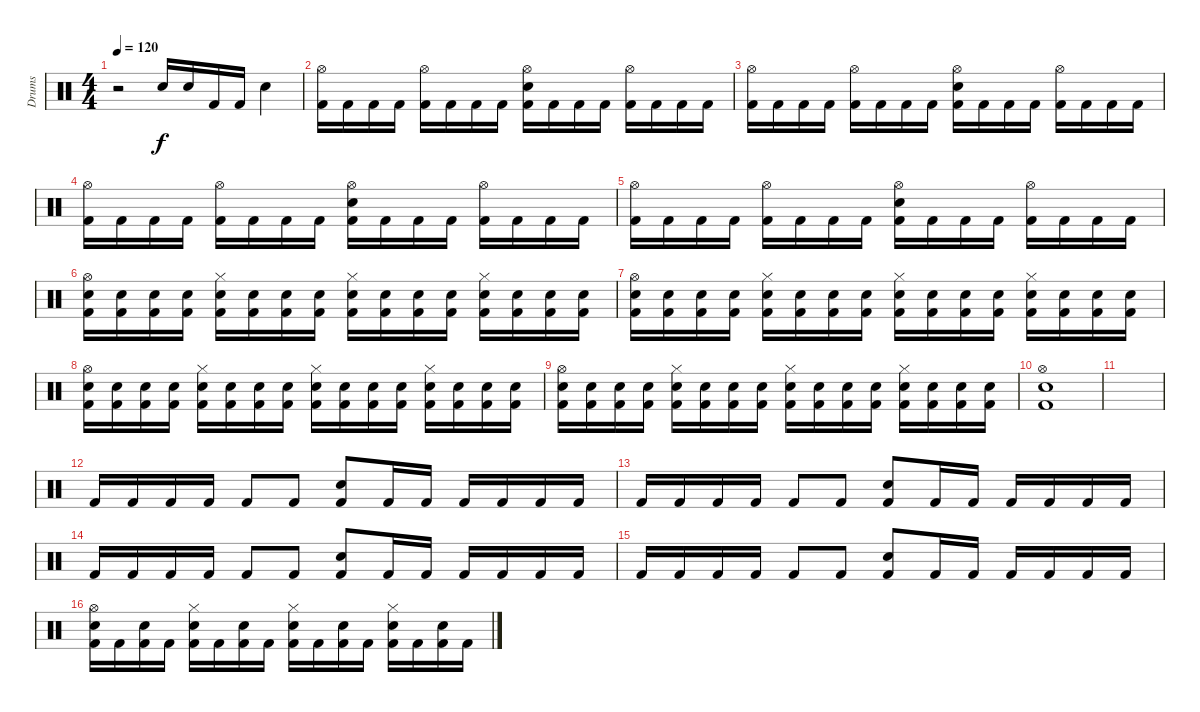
\track ("Drums" "Drums") {instrument percussion}
\staff {score}
\articulation defaults
\ts (4 4)
\tempo 120
\clef neutral
\ks c
r.2{dy f} "Snare (hit) 2".16 "Snare (hit) 2".16 "Kick (hit) 2".16 "Kick (hit) 2".16 "Snare (hit) 2".4 |
("Hi-Hat (open)" "Kick (hit) 2").16 "Kick (hit) 2".16 "Kick (hit) 2".16 "Kick (hit) 2".16 ("Hi-Hat (open)" "Kick (hit) 2").16 "Kick (hit) 2".16 "Kick (hit) 2".16 "Kick (hit) 2".16 ("Hi-Hat (open)" "Snare (hit) 2" "Kick (hit) 2").16 "Kick (hit) 2".16 "Kick (hit) 2".16 "Kick (hit) 2".16 ("Hi-Hat (open)" "Kick (hit) 2").16 "Kick (hit) 2".16 "Kick (hit) 2".16 "Kick (hit) 2".16 |
("Hi-Hat (open)" "Kick (hit) 2").16 "Kick (hit) 2".16 "Kick (hit) 2".16 "Kick (hit) 2".16 ("Hi-Hat (open)" "Kick (hit) 2").16 "Kick (hit) 2".16 "Kick (hit) 2".16 "Kick (hit) 2".16 ("Hi-Hat (open)" "Snare (hit) 2" "Kick (hit) 2").16 "Kick (hit) 2".16 "Kick (hit) 2".16 "Kick (hit) 2".16 ("Hi-Hat (open)" "Kick (hit) 2").16 "Kick (hit) 2".16 "Kick (hit) 2".16 "Kick (hit) 2".16 |
("Hi-Hat (open)" "Kick (hit) 2").16 "Kick (hit) 2".16 "Kick (hit) 2".16 "Kick (hit) 2".16 ("Hi-Hat (open)" "Kick (hit) 2").16 "Kick (hit) 2".16 "Kick (hit) 2".16 "Kick (hit) 2".16 ("Hi-Hat (open)" "Snare (hit) 2" "Kick (hit) 2").16 "Kick (hit) 2".16 "Kick (hit) 2".16 "Kick (hit) 2".16 ("Hi-Hat (open)" "Kick (hit) 2").16 "Kick (hit) 2".16 "Kick (hit) 2".16 "Kick (hit) 2".16 |
("Hi-Hat (open)" "Kick (hit) 2").16 "Kick (hit) 2".16 "Kick (hit) 2".16 "Kick (hit) 2".16 ("Hi-Hat (open)" "Kick (hit) 2").16 "Kick (hit) 2".16 "Kick (hit) 2".16 "Kick (hit) 2".16 ("Hi-Hat (open)" "Snare (hit) 2" "Kick (hit) 2").16 "Kick (hit) 2".16 "Kick (hit) 2".16 "Kick (hit) 2".16 ("Hi-Hat (open)" "Kick (hit) 2").16 "Kick (hit) 2".16 "Kick (hit) 2".16 "Kick (hit) 2".16 |
("Hi-Hat (open)" "Snare (hit) 2" "Kick (hit) 2").16 ("Snare (hit) 2" "Kick (hit) 2").16 ("Snare (hit) 2" "Kick (hit) 2").16 ("Snare (hit) 2" "Kick (hit) 2").16 ("Hi-Hat (closed)" "Snare (hit) 2" "Kick (hit) 2").16 ("Snare (hit) 2" "Kick (hit) 2").16 ("Snare (hit) 2" "Kick (hit) 2").16 ("Snare (hit) 2" "Kick (hit) 2").16 ("Hi-Hat (closed)" "Snare (hit) 2" "Kick (hit) 2").16 ("Snare (hit) 2" "Kick (hit) 2").16 ("Snare (hit) 2" "Kick (hit) 2").16 ("Snare (hit) 2" "Kick (hit) 2").16 ("Hi-Hat (closed)" "Snare (hit) 2" "Kick (hit) 2").16 ("Snare (hit) 2" "Kick (hit) 2").16 ("Snare (hit) 2" "Kick (hit) 2").16 ("Snare (hit) 2" "Kick (hit) 2").16 |
("Hi-Hat (open)" "Snare (hit) 2" "Kick (hit) 2").16 ("Snare (hit) 2" "Kick (hit) 2").16 ("Snare (hit) 2" "Kick (hit) 2").16 ("Snare (hit) 2" "Kick (hit) 2").16 ("Hi-Hat (closed)" "Snare (hit) 2" "Kick (hit) 2").16 ("Snare (hit) 2" "Kick (hit) 2").16 ("Snare (hit) 2" "Kick (hit) 2").16 ("Snare (hit) 2" "Kick (hit) 2").16 ("Hi-Hat (closed)" "Snare (hit) 2" "Kick (hit) 2").16 ("Snare (hit) 2" "Kick (hit) 2").16 ("Snare (hit) 2" "Kick (hit) 2").16 ("Snare (hit) 2" "Kick (hit) 2").16 ("Hi-Hat (closed)" "Snare (hit) 2" "Kick (hit) 2").16 ("Snare (hit) 2" "Kick (hit) 2").16 ("Snare (hit) 2" "Kick (hit) 2").16 ("Snare (hit) 2" "Kick (hit) 2").16 |
("Hi-Hat (open)" "Snare (hit) 2" "Kick (hit) 2").16 ("Snare (hit) 2" "Kick (hit) 2").16 ("Snare (hit) 2" "Kick (hit) 2").16 ("Snare (hit) 2" "Kick (hit) 2").16 ("Hi-Hat (closed)" "Snare (hit) 2" "Kick (hit) 2").16 ("Snare (hit) 2" "Kick (hit) 2").16 ("Snare (hit) 2" "Kick (hit) 2").16 ("Snare (hit) 2" "Kick (hit) 2").16 ("Hi-Hat (closed)" "Snare (hit) 2" "Kick (hit) 2").16 ("Snare (hit) 2" "Kick (hit) 2").16 ("Snare (hit) 2" "Kick (hit) 2").16 ("Snare (hit) 2" "Kick (hit) 2").16 ("Hi-Hat (closed)" "Snare (hit) 2" "Kick (hit) 2").16 ("Snare (hit) 2" "Kick (hit) 2").16 ("Snare (hit) 2" "Kick (hit) 2").16 ("Snare (hit) 2" "Kick (hit) 2").16 |
("Hi-Hat (open)" "Snare (hit) 2" "Kick (hit) 2").16 ("Snare (hit) 2" "Kick (hit) 2").16 ("Snare (hit) 2" "Kick (hit) 2").16 ("Snare (hit) 2" "Kick (hit) 2").16 ("Hi-Hat (closed)" "Snare (hit) 2" "Kick (hit) 2").16 ("Snare (hit) 2" "Kick (hit) 2").16 ("Snare (hit) 2" "Kick (hit) 2").16 ("Snare (hit) 2" "Kick (hit) 2").16 ("Hi-Hat (closed)" "Snare (hit) 2" "Kick (hit) 2").16 ("Snare (hit) 2" "Kick (hit) 2").16 ("Snare (hit) 2" "Kick (hit) 2").16 ("Snare (hit) 2" "Kick (hit) 2").16 ("Hi-Hat (closed)" "Snare (hit) 2" "Kick (hit) 2").16 ("Snare (hit) 2" "Kick (hit) 2").16 ("Snare (hit) 2" "Kick (hit) 2").16 ("Snare (hit) 2" "Kick (hit) 2").16 |
("Hi-Hat (open)" "Snare (hit) 2" "Kick (hit) 2").1 |
|
"Kick (hit) 2".16 "Kick (hit) 2".16 "Kick (hit) 2".16 "Kick (hit) 2".16 "Kick (hit) 2".8 "Kick (hit) 2".8 ("Snare (hit) 2" "Kick (hit) 2").8 "Kick (hit) 2".16 "Kick (hit) 2".16 "Kick (hit) 2".16 "Kick (hit) 2".16 "Kick (hit) 2".16 "Kick (hit) 2".16 |
"Kick (hit) 2".16 "Kick (hit) 2".16 "Kick (hit) 2".16 "Kick (hit) 2".16 "Kick (hit) 2".8 "Kick (hit) 2".8 ("Snare (hit) 2" "Kick (hit) 2").8 "Kick (hit) 2".16 "Kick (hit) 2".16 "Kick (hit) 2".16 "Kick (hit) 2".16 "Kick (hit) 2".16 "Kick (hit) 2".16 |
"Kick (hit) 2".16 "Kick (hit) 2".16 "Kick (hit) 2".16 "Kick (hit) 2".16 "Kick (hit) 2".8 "Kick (hit) 2".8 ("Snare (hit) 2" "Kick (hit) 2").8 "Kick (hit) 2".16 "Kick (hit) 2".16 "Kick (hit) 2".16 "Kick (hit) 2".16 "Kick (hit) 2".16 "Kick (hit) 2".16 |
"Kick (hit) 2".16 "Kick (hit) 2".16 "Kick (hit) 2".16 "Kick (hit) 2".16 "Kick (hit) 2".8 "Kick (hit) 2".8 ("Snare (hit) 2" "Kick (hit) 2").8 "Kick (hit) 2".16 "Kick (hit) 2".16 "Kick (hit) 2".16 "Kick (hit) 2".16 "Kick (hit) 2".16 "Kick (hit) 2".16 |
("Hi-Hat (open)" "Snare (hit) 2" "Kick (hit) 2").16 "Kick (hit) 2".16 ("Snare (hit) 2" "Kick (hit) 2").16 "Kick (hit) 2".16 ("Hi-Hat (closed)" "Snare (hit) 2" "Kick (hit) 2").16 "Kick (hit) 2".16 ("Snare (hit) 2" "Kick (hit) 2").16 "Kick (hit) 2".16 ("Hi-Hat (closed)" "Snare (hit) 2" "Kick (hit) 2").16 "Kick (hit) 2".16 ("Snare (hit) 2" "Kick (hit) 2").16 "Kick (hit) 2".16 ("Hi-Hat (closed)" "Snare (hit) 2" "Kick (hit) 2").16 "Kick (hit) 2".16 ("Snare (hit) 2" "Kick (hit) 2").16 "Kick (hit) 2".16
